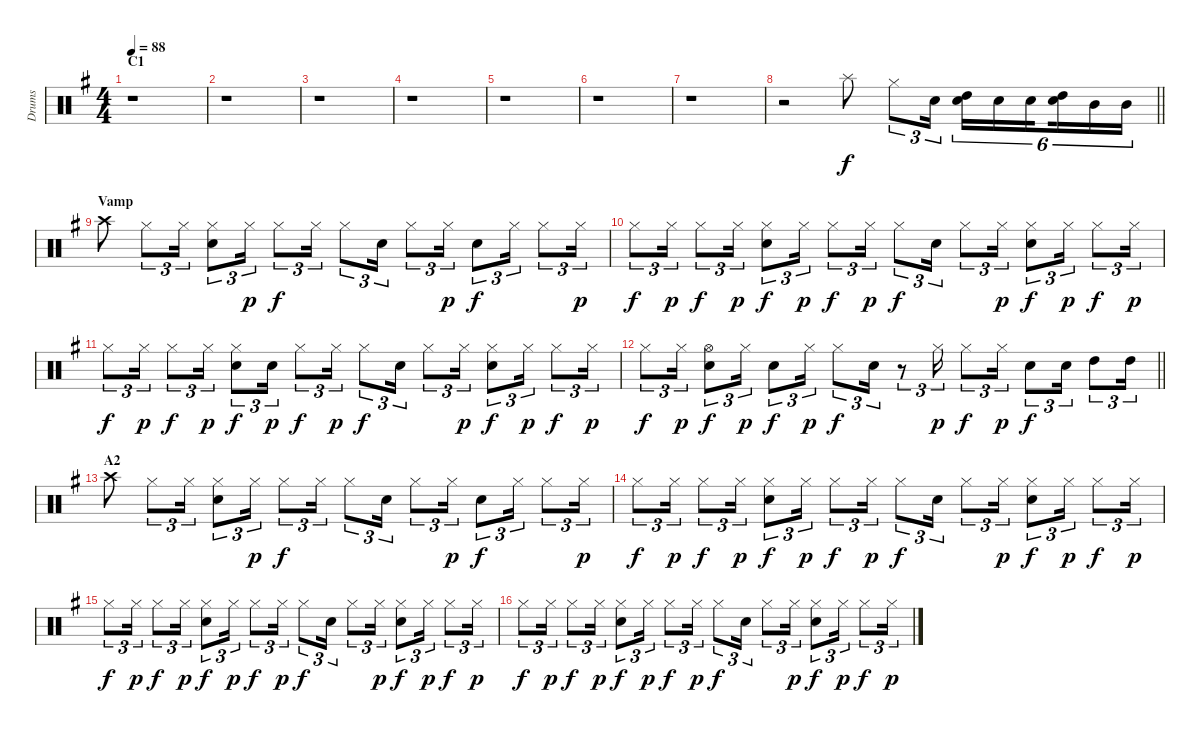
\track ("Drums" "Drums") {instrument percussion}
\staff {score}
\articulation defaults
\ts (4 4)
\section ("" "C1")
\tempo 88
\clef neutral
\ks g
r.1{dy f} |
r.1 |
r.1 |
r.1 |
r.1 |
r.1 |
r.1 |
\barLineRight lightlight
r.2 "Splash (hit)".8 "Hi-Hat (closed)".8{tu (3 2)} "Snare (hit) 2".16{tu (3 2)} ("High Tom (hit)" "Snare (hit) 2").16{tu (6 4)} "Snare (hit) 2".16{tu (6 4)} "Snare (hit) 2".16{tu (6 4) beam splitsecondary} ("High Tom (hit)" "Snare (hit) 2").16{tu (6 4)} "Mid Tom (hit)".16{tu (6 4)} "Mid Tom (hit)".16{tu (6 4)} |
\section ("" "Vamp")
"Crash high (hit)".8 "Hi-Hat (closed)".8{tu (3 2)} "Hi-Hat (closed)".16{tu (3 2)} ("Hi-Hat (closed)" "Snare (hit) 2").8{tu (3 2)} "Hi-Hat (closed)".16{tu (3 2) dy p} "Hi-Hat (closed)".8{tu (3 2) dy f} "Hi-Hat (closed)".16{tu (3 2)} "Hi-Hat (closed)".8{tu (3 2)} "Snare (hit) 2".16{tu (3 2)} "Hi-Hat (closed)".8{tu (3 2)} "Hi-Hat (closed)".16{tu (3 2) dy p} "Snare (hit) 2".8{tu (3 2) dy f} "Hi-Hat (closed)".16{tu (3 2)} "Hi-Hat (closed)".8{tu (3 2)} "Hi-Hat (closed)".16{tu (3 2) dy p} |
"Hi-Hat (closed)".8{tu (3 2) dy f} "Hi-Hat (closed)".16{tu (3 2) dy p} "Hi-Hat (closed)".8{tu (3 2) dy f} "Hi-Hat (closed)".16{tu (3 2) dy p} ("Hi-Hat (closed)" "Snare (hit) 2").8{tu (3 2) dy f} "Hi-Hat (closed)".16{tu (3 2) dy p} "Hi-Hat (closed)".8{tu (3 2) dy f} "Hi-Hat (closed)".16{tu (3 2) dy p} "Hi-Hat (closed)".8{tu (3 2) dy f} "Snare (hit) 2".16{tu (3 2)} "Hi-Hat (closed)".8{tu (3 2)} "Hi-Hat (closed)".16{tu (3 2) dy p} ("Hi-Hat (closed)" "Snare (hit) 2").8{tu (3 2) dy f} "Hi-Hat (closed)".16{tu (3 2) dy p} "Hi-Hat (closed)".8{tu (3 2) dy f} "Hi-Hat (closed)".16{tu (3 2) dy p} |
"Hi-Hat (closed)".8{tu (3 2) dy f} "Hi-Hat (closed)".16{tu (3 2) dy p} "Hi-Hat (closed)".8{tu (3 2) dy f} "Hi-Hat (closed)".16{tu (3 2) dy p} ("Hi-Hat (closed)" "Snare (hit) 2").8{tu (3 2) dy f} "Snare (hit) 2".16{tu (3 2) dy p} "Hi-Hat (closed)".8{tu (3 2) dy f} "Hi-Hat (closed)".16{tu (3 2) dy p} "Hi-Hat (closed)".8{tu (3 2) dy f} "Snare (hit) 2".16{tu (3 2)} "Hi-Hat (closed)".8{tu (3 2)} "Hi-Hat (closed)".16{tu (3 2) dy p} ("Hi-Hat (closed)" "Snare (hit) 2").8{tu (3 2) dy f} "Hi-Hat (closed)".16{tu (3 2) dy p} "Hi-Hat (closed)".8{tu (3 2) dy f} "Hi-Hat (closed)".16{tu (3 2) dy p} |
\barLineRight lightlight "Hi-Hat (closed)".8{tu (3 2) dy f} "Hi-Hat (closed)".16{tu (3 2) dy p}
("Hi-Hat (open)" "Snare (hit) 2").8{tu (3 2) dy f} "Hi-Hat (closed)".16{tu (3 2) dy p} "Snare (hit) 2".8{tu (3 2) dy f} "Hi-Hat (closed)".16{tu (3 2) dy p} "Hi-Hat (closed)".8{tu (3 2) dy f} "Snare (hit) 2".16{tu (3 2)} r.8{tu (3 2)} "Hi-Hat (closed)".16{tu (3 2) dy p} "Hi-Hat (closed)".8{tu (3 2) dy f} "Hi-Hat (closed)".16{tu (3 2) dy p} "Snare (hit) 2".8{tu (3 2) dy f} "Snare (hit) 2".16{tu (3 2)} "High Tom (hit)".8{tu (3 2)} "High Tom (hit)".16{tu (3 2)} |
\section ("" "A2")
"Crash high (hit)".8 "Hi-Hat (closed)".8{tu (3 2)} "Hi-Hat (closed)".16{tu (3 2)} ("Hi-Hat (closed)" "Snare (hit) 2").8{tu (3 2)} "Hi-Hat (closed)".16{tu (3 2) dy p} "Hi-Hat (closed)".8{tu (3 2) dy f} "Hi-Hat (closed)".16{tu (3 2)} "Hi-Hat (closed)".8{tu (3 2)} "Snare (hit) 2".16{tu (3 2)} "Hi-Hat (closed)".8{tu (3 2)} "Hi-Hat (closed)".16{tu (3 2) dy p} "Snare (hit) 2".8{tu (3 2) dy f} "Hi-Hat (closed)".16{tu (3 2)} "Hi-Hat (closed)".8{tu (3 2)} "Hi-Hat (closed)".16{tu (3 2) dy p} |
"Hi-Hat (closed)".8{tu (3 2) dy f} "Hi-Hat (closed)".16{tu (3 2) dy p} "Hi-Hat (closed)".8{tu (3 2) dy f} "Hi-Hat (closed)".16{tu (3 2) dy p} ("Hi-Hat (closed)" "Snare (hit) 2").8{tu (3 2) dy f} "Hi-Hat (closed)".16{tu (3 2) dy p} "Hi-Hat (closed)".8{tu (3 2) dy f} "Hi-Hat (closed)".16{tu (3 2) dy p} "Hi-Hat (closed)".8{tu (3 2) dy f} "Snare (hit) 2".16{tu (3 2)} "Hi-Hat (closed)".8{tu (3 2)} "Hi-Hat (closed)".16{tu (3 2) dy p} ("Hi-Hat (closed)" "Snare (hit) 2").8{tu (3 2) dy f} "Hi-Hat (closed)".16{tu (3 2) dy p} "Hi-Hat (closed)".8{tu (3 2) dy f} "Hi-Hat (closed)".16{tu (3 2) dy p} |
"Hi-Hat (closed)".8{tu (3 2) dy f} "Hi-Hat (closed)".16{tu (3 2) dy p} "Hi-Hat (closed)".8{tu (3 2) dy f} "Hi-Hat (closed)".16{tu (3 2) dy p} ("Hi-Hat (closed)" "Snare (hit) 2").8{tu (3 2) dy f} "Hi-Hat (closed)".16{tu (3 2) dy p} "Hi-Hat (closed)".8{tu (3 2) dy f} "Hi-Hat (closed)".16{tu (3 2) dy p} "Hi-Hat (closed)".8{tu (3 2) dy f} "Snare (hit) 2".16{tu (3 2)} "Hi-Hat (closed)".8{tu (3 2)} "Hi-Hat (closed)".16{tu (3 2) dy p} ("Hi-Hat (closed)" "Snare (hit) 2").8{tu (3 2) dy f} "Hi-Hat (closed)".16{tu (3 2) dy p} "Hi-Hat (closed)".8{tu (3 2) dy f} "Hi-Hat (closed)".16{tu (3 2) dy p} |
"Hi-Hat (closed)".8{tu (3 2) dy f} "Hi-Hat (closed)".16{tu (3 2) dy p} "Hi-Hat (closed)".8{tu (3 2) dy f} "Hi-Hat (closed)".16{tu (3 2) dy p} ("Hi-Hat (closed)" "Snare (hit) 2").8{tu (3 2) dy f} "Hi-Hat (closed)".16{tu (3 2) dy p} "Hi-Hat (closed)".8{tu (3 2) dy f} "Hi-Hat (closed)".16{tu (3 2) dy p} "Hi-Hat (closed)".8{tu (3 2) dy f} "Snare (hit) 2".16{tu (3 2)} "Hi-Hat (closed)".8{tu (3 2)} "Hi-Hat (closed)".16{tu (3 2) dy p} ("Hi-Hat (closed)" "Snare (hit) 2").8{tu (3 2) dy f} "Hi-Hat (closed)".16{tu (3 2) dy p} "Hi-Hat (closed)".8{tu (3 2) dy f} "Hi-Hat (closed)".16{tu (3 2) dy p}
